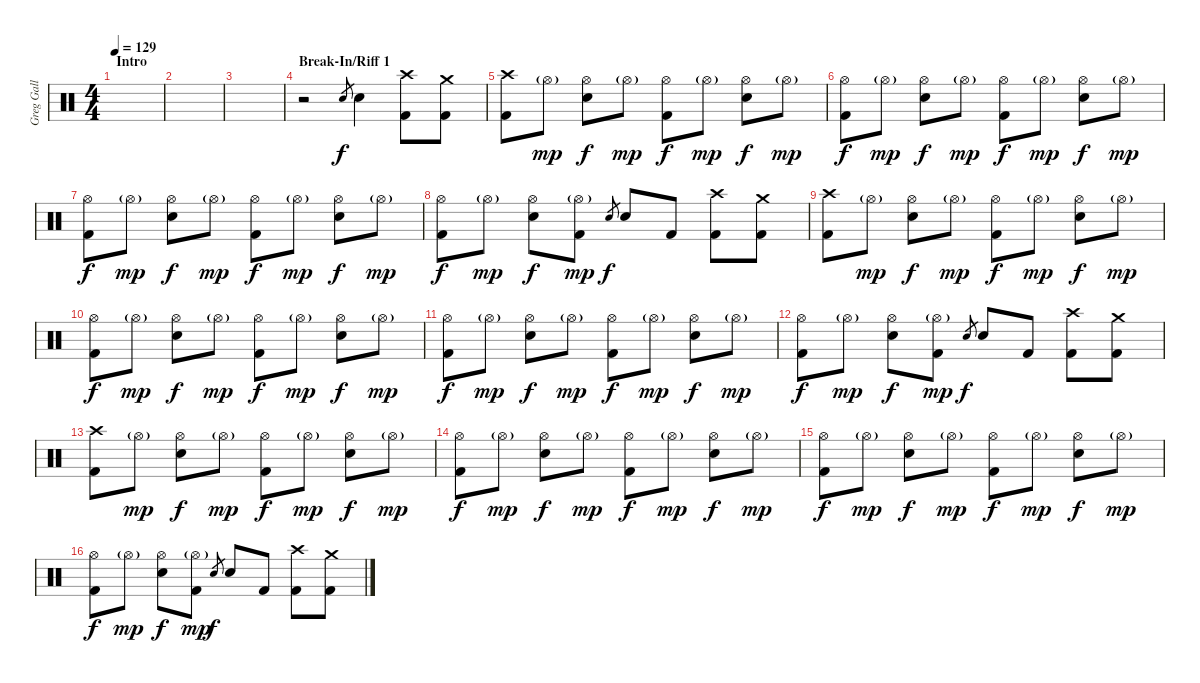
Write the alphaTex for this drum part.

\track ("Greg Gall (Drums)" "Greg Gall ") {instrument percussion}
\staff {score}
\articulation defaults
\ts (4 4)
\section ("" "Intro")
\tempo 129
\clef neutral
\ks c
|
|
|
\section ("" "Break-In/Riff 1")
r.2 "Electric Snare (hit)".8{gr} "Electric Snare (hit)".4 ("Crash high (hit)" "Kick (hit) 2").8 ("Crash medium (hit)" "Kick (hit) 2").8 |
("Crash high (hit)" "Kick (hit) 2").8 "Hi-Hat (open)"{g}.8{dy mp} ("Hi-Hat (open)" "Electric Snare (hit)").8{dy f} "Hi-Hat (open)"{g}.8{dy mp} ("Hi-Hat (open)" "Kick (hit) 2").8{dy f} "Hi-Hat (open)"{g}.8{dy mp} ("Hi-Hat (open)" "Electric Snare (hit)").8{dy f} "Hi-Hat (open)"{g}.8{dy mp} |
("Hi-Hat (open)" "Kick (hit) 2").8{dy f} "Hi-Hat (open)"{g}.8{dy mp} ("Hi-Hat (open)" "Electric Snare (hit)").8{dy f} "Hi-Hat (open)"{g}.8{dy mp} ("Hi-Hat (open)" "Kick (hit) 2").8{dy f} "Hi-Hat (open)"{g}.8{dy mp} ("Hi-Hat (open)" "Electric Snare (hit)").8{dy f} "Hi-Hat (open)"{g}.8{dy mp} |
("Hi-Hat (open)" "Kick (hit) 2").8{dy f} "Hi-Hat (open)"{g}.8{dy mp} ("Hi-Hat (open)" "Electric Snare (hit)").8{dy f} "Hi-Hat (open)"{g}.8{dy mp} ("Hi-Hat (open)" "Kick (hit) 2").8{dy f} "Hi-Hat (open)"{g}.8{dy mp} ("Hi-Hat (open)" "Electric Snare (hit)").8{dy f} "Hi-Hat (open)"{g}.8{dy mp} |
("Hi-Hat (open)" "Kick (hit) 2").8{dy f} "Hi-Hat (open)"{g}.8{dy mp} ("Hi-Hat (open)" "Electric Snare (hit)").8{dy f} ("Hi-Hat (open)"{g} "Kick (hit) 2").8{dy mp} "Electric Snare (hit)".8{gr dy f} "Electric Snare (hit)".8 "Kick (hit) 2".8 ("Crash high (hit)" "Kick (hit) 2").8 ("Crash medium (hit)" "Kick (hit) 2").8 |
("Crash high (hit)" "Kick (hit) 2").8 "Hi-Hat (open)"{g}.8{dy mp} ("Hi-Hat (open)" "Electric Snare (hit)").8{dy f} "Hi-Hat (open)"{g}.8{dy mp} ("Hi-Hat (open)" "Kick (hit) 2").8{dy f} "Hi-Hat (open)"{g}.8{dy mp} ("Hi-Hat (open)" "Electric Snare (hit)").8{dy f} "Hi-Hat (open)"{g}.8{dy mp} |
("Hi-Hat (open)" "Kick (hit) 2").8{dy f} "Hi-Hat (open)"{g}.8{dy mp} ("Hi-Hat (open)" "Electric Snare (hit)").8{dy f} "Hi-Hat (open)"{g}.8{dy mp} ("Hi-Hat (open)" "Kick (hit) 2").8{dy f} "Hi-Hat (open)"{g}.8{dy mp} ("Hi-Hat (open)" "Electric Snare (hit)").8{dy f} "Hi-Hat (open)"{g}.8{dy mp} |
("Hi-Hat (open)" "Kick (hit) 2").8{dy f} "Hi-Hat (open)"{g}.8{dy mp} ("Hi-Hat (open)" "Electric Snare (hit)").8{dy f} "Hi-Hat (open)"{g}.8{dy mp} ("Hi-Hat (open)" "Kick (hit) 2").8{dy f} "Hi-Hat (open)"{g}.8{dy mp} ("Hi-Hat (open)" "Electric Snare (hit)").8{dy f} "Hi-Hat (open)"{g}.8{dy mp} |
("Hi-Hat (open)" "Kick (hit) 2").8{dy f} "Hi-Hat (open)"{g}.8{dy mp} ("Hi-Hat (open)" "Electric Snare (hit)").8{dy f} ("Hi-Hat (open)"{g} "Kick (hit) 2").8{dy mp} "Electric Snare (hit)".8{gr dy f} "Electric Snare (hit)".8 "Kick (hit) 2".8 ("Crash high (hit)" "Kick (hit) 2").8 ("Crash medium (hit)" "Kick (hit) 2").8 |
("Crash high (hit)" "Kick (hit) 2").8 "Hi-Hat (open)"{g}.8{dy mp} ("Hi-Hat (open)" "Electric Snare (hit)").8{dy f} "Hi-Hat (open)"{g}.8{dy mp} ("Hi-Hat (open)" "Kick (hit) 2").8{dy f} "Hi-Hat (open)"{g}.8{dy mp} ("Hi-Hat (open)" "Electric Snare (hit)").8{dy f} "Hi-Hat (open)"{g}.8{dy mp} |
("Hi-Hat (open)" "Kick (hit) 2").8{dy f} "Hi-Hat (open)"{g}.8{dy mp} ("Hi-Hat (open)" "Electric Snare (hit)").8{dy f} "Hi-Hat (open)"{g}.8{dy mp} ("Hi-Hat (open)" "Kick (hit) 2").8{dy f} "Hi-Hat (open)"{g}.8{dy mp} ("Hi-Hat (open)" "Electric Snare (hit)").8{dy f} "Hi-Hat (open)"{g}.8{dy mp} |
("Hi-Hat (open)" "Kick (hit) 2").8{dy f} "Hi-Hat (open)"{g}.8{dy mp} ("Hi-Hat (open)" "Electric Snare (hit)").8{dy f} "Hi-Hat (open)"{g}.8{dy mp} ("Hi-Hat (open)" "Kick (hit) 2").8{dy f} "Hi-Hat (open)"{g}.8{dy mp} ("Hi-Hat (open)" "Electric Snare (hit)").8{dy f} "Hi-Hat (open)"{g}.8{dy mp} |
("Hi-Hat (open)" "Kick (hit) 2").8{dy f} "Hi-Hat (open)"{g}.8{dy mp} ("Hi-Hat (open)" "Electric Snare (hit)").8{dy f} ("Hi-Hat (open)"{g} "Kick (hit) 2").8{dy mp} "Electric Snare (hit)".8{gr dy f} "Electric Snare (hit)".8 "Kick (hit) 2".8 ("Crash high (hit)" "Kick (hit) 2").8 ("Crash medium (hit)" "Kick (hit) 2").8
